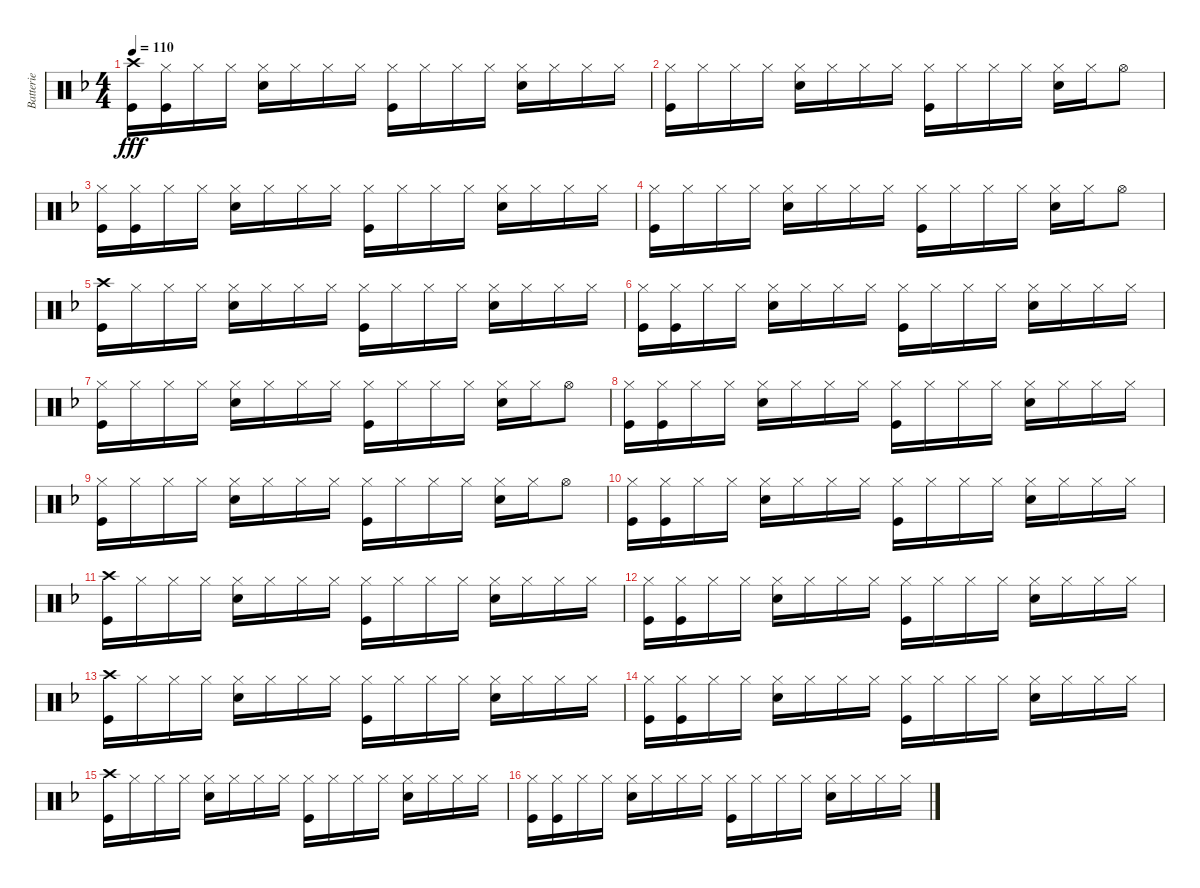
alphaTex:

\track ("Batterie" "Batterie") {instrument percussion}
\staff {score}
\articulation defaults
\ts (4 4)
\tempo 110
\clef neutral
\ks f
("Crash high (hit)" "Kick (hit)").16{dy fff} ("Hi-Hat (closed)" "Kick (hit)").16 "Hi-Hat (closed)".16 "Hi-Hat (closed)".16 ("Hi-Hat (closed)" "Snare (hit) 2").16 "Hi-Hat (closed)".16 "Hi-Hat (closed)".16 "Hi-Hat (closed)".16 ("Hi-Hat (closed)" "Kick (hit)").16 "Hi-Hat (closed)".16 "Hi-Hat (closed)".16 "Hi-Hat (closed)".16 ("Hi-Hat (closed)" "Snare (hit) 2").16 "Hi-Hat (closed)".16 "Hi-Hat (closed)".16 "Hi-Hat (closed)".16 |
("Hi-Hat (closed)" "Kick (hit)").16 "Hi-Hat (closed)".16 "Hi-Hat (closed)".16 "Hi-Hat (closed)".16 ("Hi-Hat (closed)" "Snare (hit) 2").16 "Hi-Hat (closed)".16 "Hi-Hat (closed)".16 "Hi-Hat (closed)".16 ("Hi-Hat (closed)" "Kick (hit)").16 "Hi-Hat (closed)".16 "Hi-Hat (closed)".16 "Hi-Hat (closed)".16 ("Hi-Hat (closed)" "Snare (hit) 2").16 "Hi-Hat (closed)".16 "Hi-Hat (open)".8 |
("Hi-Hat (closed)" "Kick (hit)").16 ("Hi-Hat (closed)" "Kick (hit)").16 "Hi-Hat (closed)".16 "Hi-Hat (closed)".16 ("Hi-Hat (closed)" "Snare (hit) 2").16 "Hi-Hat (closed)".16 "Hi-Hat (closed)".16 "Hi-Hat (closed)".16 ("Hi-Hat (closed)" "Kick (hit)").16 "Hi-Hat (closed)".16 "Hi-Hat (closed)".16 "Hi-Hat (closed)".16 ("Hi-Hat (closed)" "Snare (hit) 2").16 "Hi-Hat (closed)".16 "Hi-Hat (closed)".16 "Hi-Hat (closed)".16 |
("Hi-Hat (closed)" "Kick (hit)").16 "Hi-Hat (closed)".16 "Hi-Hat (closed)".16 "Hi-Hat (closed)".16 ("Hi-Hat (closed)" "Snare (hit) 2").16 "Hi-Hat (closed)".16 "Hi-Hat (closed)".16 "Hi-Hat (closed)".16 ("Hi-Hat (closed)" "Kick (hit)").16 "Hi-Hat (closed)".16 "Hi-Hat (closed)".16 "Hi-Hat (closed)".16 ("Hi-Hat (closed)" "Snare (hit) 2").16 "Hi-Hat (closed)".16 "Hi-Hat (open)".8 |
("Crash high (hit)" "Kick (hit)").16 "Hi-Hat (closed)".16 "Hi-Hat (closed)".16 "Hi-Hat (closed)".16 ("Hi-Hat (closed)" "Snare (hit) 2").16 "Hi-Hat (closed)".16 "Hi-Hat (closed)".16 "Hi-Hat (closed)".16 ("Hi-Hat (closed)" "Kick (hit)").16 "Hi-Hat (closed)".16 "Hi-Hat (closed)".16 "Hi-Hat (closed)".16 ("Hi-Hat (closed)" "Snare (hit) 2").16 "Hi-Hat (closed)".16 "Hi-Hat (closed)".16 "Hi-Hat (closed)".16 |
("Hi-Hat (closed)" "Kick (hit)").16 ("Hi-Hat (closed)" "Kick (hit)").16 "Hi-Hat (closed)".16 "Hi-Hat (closed)".16 ("Hi-Hat (closed)" "Snare (hit) 2").16 "Hi-Hat (closed)".16 "Hi-Hat (closed)".16 "Hi-Hat (closed)".16 ("Hi-Hat (closed)" "Kick (hit)").16 "Hi-Hat (closed)".16 "Hi-Hat (closed)".16 "Hi-Hat (closed)".16 ("Hi-Hat (closed)" "Snare (hit) 2").16 "Hi-Hat (closed)".16 "Hi-Hat (closed)".16 "Hi-Hat (closed)".16 |
("Hi-Hat (closed)" "Kick (hit)").16 "Hi-Hat (closed)".16 "Hi-Hat (closed)".16 "Hi-Hat (closed)".16 ("Hi-Hat (closed)" "Snare (hit) 2").16 "Hi-Hat (closed)".16 "Hi-Hat (closed)".16 "Hi-Hat (closed)".16 ("Hi-Hat (closed)" "Kick (hit)").16 "Hi-Hat (closed)".16 "Hi-Hat (closed)".16 "Hi-Hat (closed)".16 ("Hi-Hat (closed)" "Snare (hit) 2").16 "Hi-Hat (closed)".16 "Hi-Hat (open)".8 |
("Hi-Hat (closed)" "Kick (hit)").16 ("Hi-Hat (closed)" "Kick (hit)").16 "Hi-Hat (closed)".16 "Hi-Hat (closed)".16 ("Hi-Hat (closed)" "Snare (hit) 2").16 "Hi-Hat (closed)".16 "Hi-Hat (closed)".16 "Hi-Hat (closed)".16 ("Hi-Hat (closed)" "Kick (hit)").16 "Hi-Hat (closed)".16 "Hi-Hat (closed)".16 "Hi-Hat (closed)".16 ("Hi-Hat (closed)" "Snare (hit) 2").16 "Hi-Hat (closed)".16 "Hi-Hat (closed)".16 "Hi-Hat (closed)".16 |
("Hi-Hat (closed)" "Kick (hit)").16 "Hi-Hat (closed)".16 "Hi-Hat (closed)".16 "Hi-Hat (closed)".16 ("Hi-Hat (closed)" "Snare (hit) 2").16 "Hi-Hat (closed)".16 "Hi-Hat (closed)".16 "Hi-Hat (closed)".16 ("Hi-Hat (closed)" "Kick (hit)").16 "Hi-Hat (closed)".16 "Hi-Hat (closed)".16 "Hi-Hat (closed)".16 ("Hi-Hat (closed)" "Snare (hit) 2").16 "Hi-Hat (closed)".16 "Hi-Hat (open)".8 |
("Hi-Hat (closed)" "Kick (hit)").16 ("Hi-Hat (closed)" "Kick (hit)").16 "Hi-Hat (closed)".16 "Hi-Hat (closed)".16 ("Hi-Hat (closed)" "Snare (hit) 2").16 "Hi-Hat (closed)".16 "Hi-Hat (closed)".16 "Hi-Hat (closed)".16 ("Hi-Hat (closed)" "Kick (hit)").16 "Hi-Hat (closed)".16 "Hi-Hat (closed)".16 "Hi-Hat (closed)".16 ("Hi-Hat (closed)" "Snare (hit) 2").16 "Hi-Hat (closed)".16 "Hi-Hat (closed)".16 "Hi-Hat (closed)".16 |
("Crash high (hit)" "Kick (hit)").16 "Hi-Hat (closed)".16 "Hi-Hat (closed)".16 "Hi-Hat (closed)".16 ("Hi-Hat (closed)" "Snare (hit) 2").16 "Hi-Hat (closed)".16 "Hi-Hat (closed)".16 "Hi-Hat (closed)".16 ("Hi-Hat (closed)" "Kick (hit)").16 "Hi-Hat (closed)".16 "Hi-Hat (closed)".16 "Hi-Hat (closed)".16 ("Hi-Hat (closed)" "Snare (hit) 2").16 "Hi-Hat (closed)".16 "Hi-Hat (closed)".16 "Hi-Hat (closed)".16 |
("Hi-Hat (closed)" "Kick (hit)").16 ("Hi-Hat (closed)" "Kick (hit)").16 "Hi-Hat (closed)".16 "Hi-Hat (closed)".16 ("Hi-Hat (closed)" "Snare (hit) 2").16 "Hi-Hat (closed)".16 "Hi-Hat (closed)".16 "Hi-Hat (closed)".16 ("Hi-Hat (closed)" "Kick (hit)").16 "Hi-Hat (closed)".16 "Hi-Hat (closed)".16 "Hi-Hat (closed)".16 ("Hi-Hat (closed)" "Snare (hit) 2").16 "Hi-Hat (closed)".16 "Hi-Hat (closed)".16 "Hi-Hat (closed)".16 |
("Crash high (hit)" "Kick (hit)").16 "Hi-Hat (closed)".16 "Hi-Hat (closed)".16 "Hi-Hat (closed)".16 ("Hi-Hat (closed)" "Snare (hit) 2").16 "Hi-Hat (closed)".16 "Hi-Hat (closed)".16 "Hi-Hat (closed)".16 ("Hi-Hat (closed)" "Kick (hit)").16 "Hi-Hat (closed)".16 "Hi-Hat (closed)".16 "Hi-Hat (closed)".16 ("Hi-Hat (closed)" "Snare (hit) 2").16 "Hi-Hat (closed)".16 "Hi-Hat (closed)".16 "Hi-Hat (closed)".16 |
("Hi-Hat (closed)" "Kick (hit)").16 ("Hi-Hat (closed)" "Kick (hit)").16 "Hi-Hat (closed)".16 "Hi-Hat (closed)".16 ("Hi-Hat (closed)" "Snare (hit) 2").16 "Hi-Hat (closed)".16 "Hi-Hat (closed)".16 "Hi-Hat (closed)".16 ("Hi-Hat (closed)" "Kick (hit)").16 "Hi-Hat (closed)".16 "Hi-Hat (closed)".16 "Hi-Hat (closed)".16 ("Hi-Hat (closed)" "Snare (hit) 2").16 "Hi-Hat (closed)".16 "Hi-Hat (closed)".16 "Hi-Hat (closed)".16 |
("Crash high (hit)" "Kick (hit)").16 "Hi-Hat (closed)".16 "Hi-Hat (closed)".16 "Hi-Hat (closed)".16 ("Hi-Hat (closed)" "Snare (hit) 2").16 "Hi-Hat (closed)".16 "Hi-Hat (closed)".16 "Hi-Hat (closed)".16 ("Hi-Hat (closed)" "Kick (hit)").16 "Hi-Hat (closed)".16 "Hi-Hat (closed)".16 "Hi-Hat (closed)".16 ("Hi-Hat (closed)" "Snare (hit) 2").16 "Hi-Hat (closed)".16 "Hi-Hat (closed)".16 "Hi-Hat (closed)".16 |
("Hi-Hat (closed)" "Kick (hit)").16 ("Hi-Hat (closed)" "Kick (hit)").16 "Hi-Hat (closed)".16 "Hi-Hat (closed)".16 ("Hi-Hat (closed)" "Snare (hit) 2").16 "Hi-Hat (closed)".16 "Hi-Hat (closed)".16 "Hi-Hat (closed)".16 ("Hi-Hat (closed)" "Kick (hit)").16 "Hi-Hat (closed)".16 "Hi-Hat (closed)".16 "Hi-Hat (closed)".16 ("Hi-Hat (closed)" "Snare (hit) 2").16 "Hi-Hat (closed)".16 "Hi-Hat (closed)".16 "Hi-Hat (closed)".16
